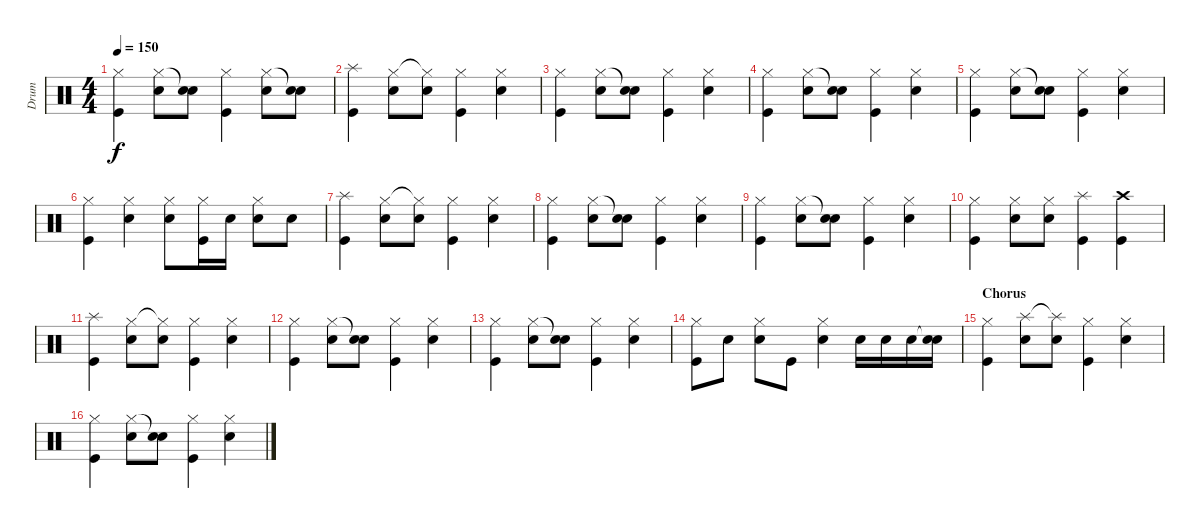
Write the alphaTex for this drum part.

\track ("Drum" "Drum") {instrument percussion}
\staff {score}
\articulation defaults
\ts (4 4)
\tempo 150
\clef neutral
\ks c
("Hi-Hat (closed)" "Kick (hit)").4{dy f} ("Hi-Hat (closed)" "Snare (hit) 2").8 ("Snare (hit)"{t} "Snare (hit) 2").8 ("Hi-Hat (closed)" "Kick (hit)").4 ("Hi-Hat (closed)" "Snare (hit) 2").8 ("Snare (hit)"{t} "Snare (hit) 2").8 |
("Splash (hit)" "Kick (hit)").4 ("Hi-Hat (closed)" "Snare (hit) 2").8 ("Hi-Hat (closed)"{t} "Snare (hit) 2").8 ("Hi-Hat (closed)" "Kick (hit)").4 ("Hi-Hat (closed)" "Snare (hit) 2").4 |
("Hi-Hat (closed)" "Kick (hit)").4 ("Hi-Hat (closed)" "Snare (hit) 2").8 ("Snare (hit)"{t} "Snare (hit) 2").8 ("Hi-Hat (closed)" "Kick (hit)").4 ("Hi-Hat (closed)" "Snare (hit) 2").4 |
("Hi-Hat (closed)" "Kick (hit)").4 ("Hi-Hat (closed)" "Snare (hit) 2").8 ("Snare (hit)"{t} "Snare (hit) 2").8 ("Hi-Hat (closed)" "Kick (hit)").4 ("Hi-Hat (closed)" "Snare (hit) 2").4 |
("Hi-Hat (closed)" "Kick (hit)").4 ("Hi-Hat (closed)" "Snare (hit) 2").8 ("Snare (hit)"{t} "Snare (hit) 2").8 ("Hi-Hat (closed)" "Kick (hit)").4 ("Hi-Hat (closed)" "Snare (hit) 2").4 |
("Hi-Hat (closed)" "Kick (hit)").4 ("Hi-Hat (closed)" "Snare (hit) 2").4 ("Hi-Hat (closed)" "Snare (hit) 2").8 ("Hi-Hat (closed)" "Kick (hit)").16 "Snare (hit) 2".16 ("Hi-Hat (closed)" "Snare (hit) 2").8 "Snare (hit) 2".8 |
("Splash (hit)" "Kick (hit)").4 ("Hi-Hat (closed)" "Snare (hit) 2").8 ("Hi-Hat (closed)"{t} "Snare (hit) 2").8 ("Hi-Hat (closed)" "Kick (hit)").4 ("Hi-Hat (closed)" "Snare (hit) 2").4 |
("Hi-Hat (closed)" "Kick (hit)").4 ("Hi-Hat (closed)" "Snare (hit) 2").8 ("Snare (hit)"{t} "Snare (hit) 2").8 ("Hi-Hat (closed)" "Kick (hit)").4 ("Hi-Hat (closed)" "Snare (hit) 2").4 |
("Hi-Hat (closed)" "Kick (hit)").4 ("Hi-Hat (closed)" "Snare (hit) 2").8 ("Snare (hit)"{t} "Snare (hit) 2").8 ("Hi-Hat (closed)" "Kick (hit)").4 ("Hi-Hat (closed)" "Snare (hit) 2").4 |
("Hi-Hat (closed)" "Kick (hit)").4 ("Hi-Hat (closed)" "Snare (hit) 2").8 ("Hi-Hat (closed)" "Snare (hit) 2").8 ("Splash (hit)" "Kick (hit)").4 ("Crash high (hit)" "Kick (hit)").4 |
("Splash (hit)" "Kick (hit)").4 ("Hi-Hat (closed)" "Snare (hit) 2").8 ("Hi-Hat (closed)"{t} "Snare (hit) 2").8 ("Hi-Hat (closed)" "Kick (hit)").4 ("Hi-Hat (closed)" "Snare (hit) 2").4 |
("Hi-Hat (closed)" "Kick (hit)").4 ("Hi-Hat (closed)" "Snare (hit) 2").8 ("Snare (hit)"{t} "Snare (hit) 2").8 ("Hi-Hat (closed)" "Kick (hit)").4 ("Hi-Hat (closed)" "Snare (hit) 2").4 |
("Hi-Hat (closed)" "Kick (hit)").4 ("Hi-Hat (closed)" "Snare (hit) 2").8 ("Snare (hit)"{t} "Snare (hit) 2").8 ("Hi-Hat (closed)" "Kick (hit)").4 ("Hi-Hat (closed)" "Snare (hit) 2").4 |
("Hi-Hat (closed)" "Kick (hit)").8 "Snare (hit) 2".8 ("Hi-Hat (closed)" "Snare (hit) 2").8 "Kick (hit)".8 ("Hi-Hat (closed)" "Snare (hit) 2").4 "Snare (hit) 2".16 "Snare (hit) 2".16 "Snare (hit) 2".16 ("Snare (hit)"{t} "Snare (hit) 2").16 |
\section ("" "Chorus")
("Hi-Hat (closed)" "Kick (hit)").4 ("Splash (hit)" "Snare (hit) 2").8 ("Splash (hit)"{t} "Snare (hit) 2").8 ("Hi-Hat (closed)" "Kick (hit)").4 ("Hi-Hat (closed)" "Snare (hit) 2").4 |
("Hi-Hat (closed)" "Kick (hit)").4 ("Hi-Hat (closed)" "Snare (hit) 2").8 ("Snare (hit)"{t} "Snare (hit) 2").8 ("Hi-Hat (closed)" "Kick (hit)").4 ("Hi-Hat (closed)" "Snare (hit) 2").4
